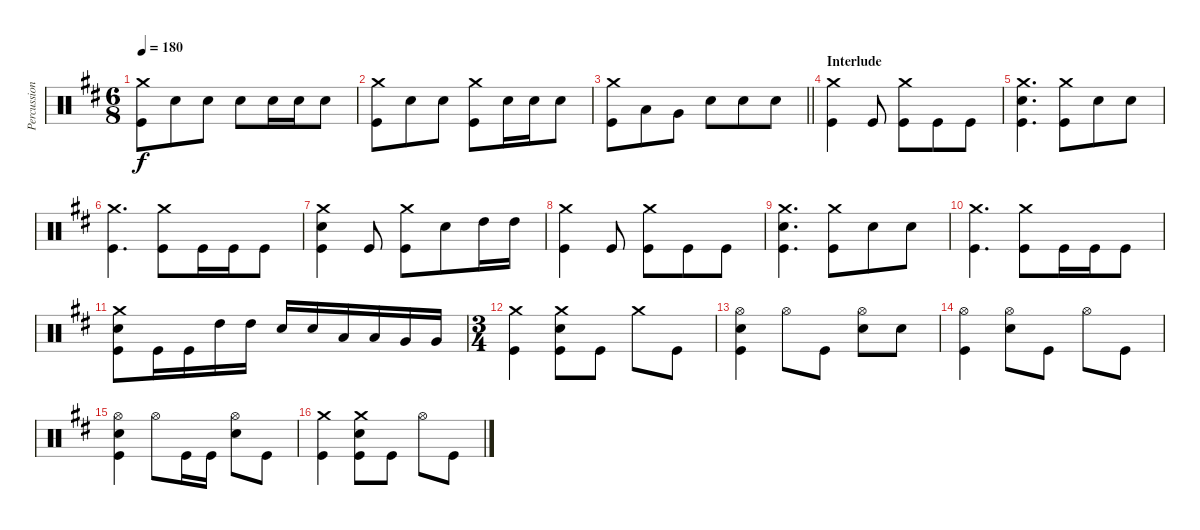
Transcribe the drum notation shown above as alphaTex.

\track ("Percussion" "Percussion") {instrument percussion}
\staff {score}
\articulation defaults
\ts (6 8)
\tempo 180
\clef neutral
\ks d
("Crash medium (hit)" "Kick (hit)").8{dy f} "Electric Snare (hit)".8 "Electric Snare (hit)".8 "Electric Snare (hit)".8 "Electric Snare (hit)".16 "Electric Snare (hit)".16 "Electric Snare (hit)".8 |
("Crash medium (hit)" "Kick (hit)").8 "Electric Snare (hit)".8 "Electric Snare (hit)".8 ("Crash medium (hit)" "Kick (hit)").8 "Electric Snare (hit)".16 "Electric Snare (hit)".16 "Electric Snare (hit)".8 |
\barLineRight lightlight
("Crash medium (hit)" "Kick (hit)").8 "Low Tom (hit)".8 "Very Low Tom (hit)".8 "Electric Snare (hit)".8 "Electric Snare (hit)".8 "Electric Snare (hit)".8 |
\section ("" "Interlude")
("Crash medium (hit)" "Kick (hit)").4 "Kick (hit)".8 ("Crash medium (hit)" "Kick (hit)").8 "Kick (hit)".8 "Kick (hit)".8 |
("Crash medium (hit)" "Electric Snare (hit)" "Kick (hit)").4{d} ("Crash medium (hit)" "Kick (hit)").8 "Electric Snare (hit)".8 "Electric Snare (hit)".8 |
("Crash medium (hit)" "Kick (hit)").4{d} ("Crash medium (hit)" "Kick (hit)").8 "Kick (hit)".16 "Kick (hit)".16 "Kick (hit)".8 |
("Crash medium (hit)" "Electric Snare (hit)" "Kick (hit)").4 "Kick (hit)".8 ("Crash medium (hit)" "Kick (hit)").8 "Electric Snare (hit)".8 "High Tom (hit)".16 "High Tom (hit)".16 |
("Crash medium (hit)" "Kick (hit)").4 "Kick (hit)".8 ("Crash medium (hit)" "Kick (hit)").8 "Kick (hit)".8 "Kick (hit)".8 |
("Crash medium (hit)" "Electric Snare (hit)" "Kick (hit)").4{d} ("Crash medium (hit)" "Kick (hit)").8 "Electric Snare (hit)".8 "Electric Snare (hit)".8 |
("Crash medium (hit)" "Kick (hit)").4{d} ("Crash medium (hit)" "Kick (hit)").8 "Kick (hit)".16 "Kick (hit)".16 "Kick (hit)".8 |
("Crash medium (hit)" "Electric Snare (hit)" "Kick (hit)").8 "Kick (hit)".16 "Kick (hit)".16 "High Tom (hit)".16 "High Tom (hit)".16 "Electric Snare (hit)".16 "Electric Snare (hit)".16 "Low Tom (hit)".16 "Low Tom (hit)".16 "Very Low Tom (hit)".16 "Very Low Tom (hit)".16 |
\ts (3 4)
("Crash medium (hit)" "Kick (hit)").4 ("Crash medium (hit)" "Electric Snare (hit)" "Kick (hit)").8 "Kick (hit)".8 "Crash medium (hit)".8 "Kick (hit)".8 |
("Hi-Hat (open)" "Electric Snare (hit)" "Kick (hit)").4 "Hi-Hat (open)".8 "Kick (hit)".8 ("Hi-Hat (open)" "Electric Snare (hit)").8 "Electric Snare (hit)".8 |
("Hi-Hat (open)" "Kick (hit)").4 ("Hi-Hat (open)" "Electric Snare (hit)").8 "Kick (hit)".8 "Hi-Hat (open)".8 "Kick (hit)".8 |
("Hi-Hat (open)" "Electric Snare (hit)" "Kick (hit)").4 "Hi-Hat (open)".8 "Kick (hit)".16 "Kick (hit)".16 ("Hi-Hat (open)" "Electric Snare (hit)").8 "Kick (hit)".8 |
("Crash medium (hit)" "Kick (hit)").4 ("Crash medium (hit)" "Electric Snare (hit)" "Kick (hit)").8 "Kick (hit)".8 "Hi-Hat (open)".8 "Kick (hit)".8
